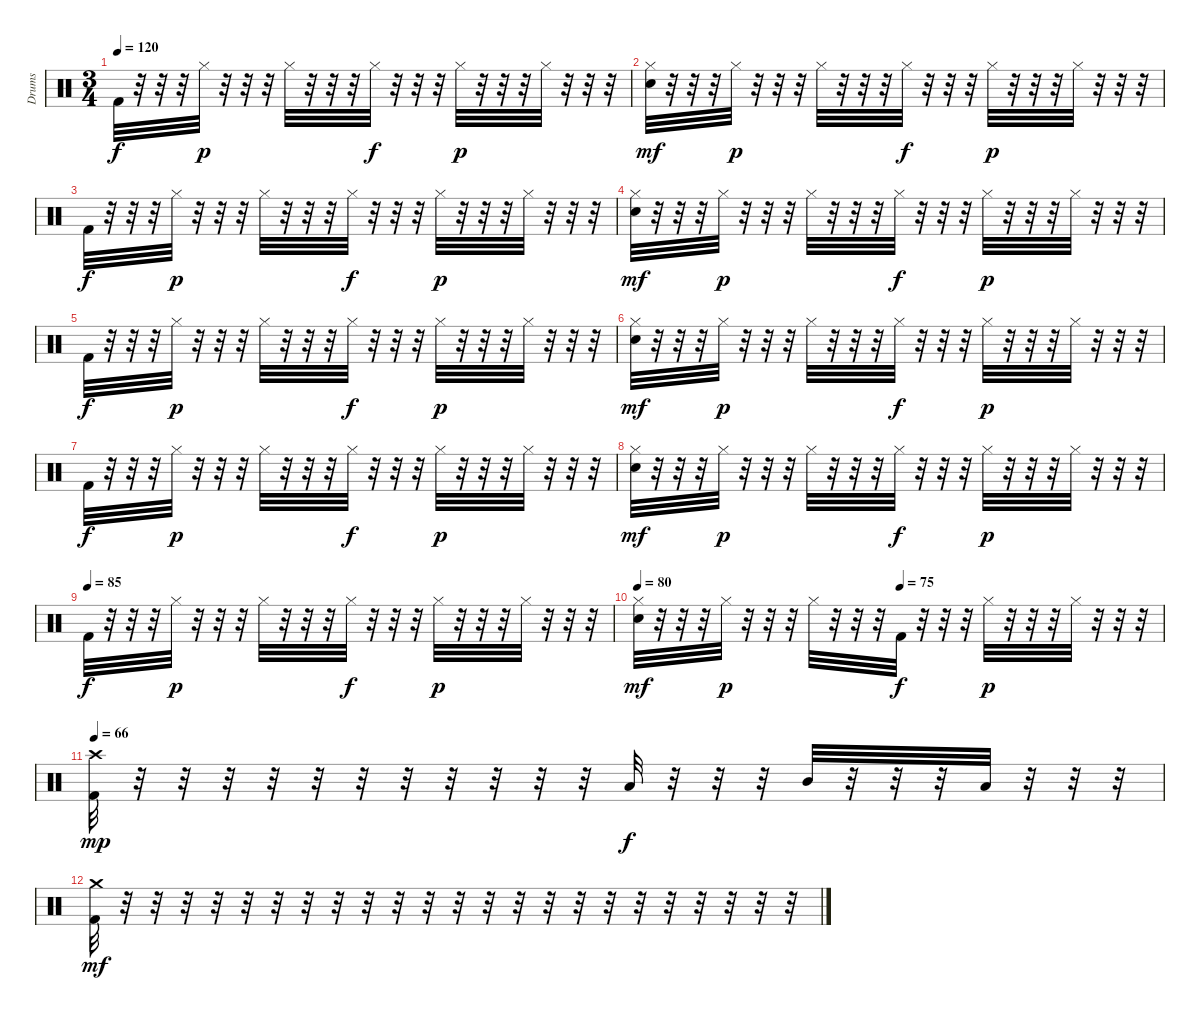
\track ("Drums" "Drums") {instrument percussion}
\staff {score}
\articulation defaults
\ts (3 4)
\tempo 120
\clef neutral
\ks c "Kick (hit) 2".32{dy f}
r.32 r.32 r.32 "Hi-Hat (closed)".32{dy p} r.32 r.32 r.32 "Hi-Hat (closed)".32 r.32 r.32 r.32 "Hi-Hat (closed)".32{dy f} r.32 r.32 r.32 "Hi-Hat (closed)".32{dy p} r.32 r.32 r.32 "Hi-Hat (closed)".32 r.32 r.32 r.32 |
("Hi-Hat (closed)" "Snare (hit) 2").32{dy mf} r.32 r.32 r.32 "Hi-Hat (closed)".32{dy p} r.32 r.32 r.32 "Hi-Hat (closed)".32 r.32 r.32 r.32 "Hi-Hat (closed)".32{dy f} r.32 r.32 r.32 "Hi-Hat (closed)".32{dy p} r.32 r.32 r.32 "Hi-Hat (closed)".32 r.32 r.32 r.32 |
"Kick (hit) 2".32{dy f} r.32 r.32 r.32 "Hi-Hat (closed)".32{dy p} r.32 r.32 r.32 "Hi-Hat (closed)".32 r.32 r.32 r.32 "Hi-Hat (closed)".32{dy f} r.32 r.32 r.32 "Hi-Hat (closed)".32{dy p} r.32 r.32 r.32 "Hi-Hat (closed)".32 r.32 r.32 r.32 |
("Hi-Hat (closed)" "Snare (hit) 2").32{dy mf} r.32 r.32 r.32 "Hi-Hat (closed)".32{dy p} r.32 r.32 r.32 "Hi-Hat (closed)".32 r.32 r.32 r.32 "Hi-Hat (closed)".32{dy f} r.32 r.32 r.32 "Hi-Hat (closed)".32{dy p} r.32 r.32 r.32 "Hi-Hat (closed)".32 r.32 r.32 r.32 |
"Kick (hit) 2".32{dy f} r.32 r.32 r.32 "Hi-Hat (closed)".32{dy p} r.32 r.32 r.32 "Hi-Hat (closed)".32 r.32 r.32 r.32 "Hi-Hat (closed)".32{dy f} r.32 r.32 r.32 "Hi-Hat (closed)".32{dy p} r.32 r.32 r.32 "Hi-Hat (closed)".32 r.32 r.32 r.32 |
("Hi-Hat (closed)" "Snare (hit) 2").32{dy mf} r.32 r.32 r.32 "Hi-Hat (closed)".32{dy p} r.32 r.32 r.32 "Hi-Hat (closed)".32 r.32 r.32 r.32 "Hi-Hat (closed)".32{dy f} r.32 r.32 r.32 "Hi-Hat (closed)".32{dy p} r.32 r.32 r.32 "Hi-Hat (closed)".32 r.32 r.32 r.32 |
"Kick (hit) 2".32{dy f} r.32 r.32 r.32 "Hi-Hat (closed)".32{dy p} r.32 r.32 r.32 "Hi-Hat (closed)".32 r.32 r.32 r.32 "Hi-Hat (closed)".32{dy f} r.32 r.32 r.32 "Hi-Hat (closed)".32{dy p} r.32 r.32 r.32 "Hi-Hat (closed)".32 r.32 r.32 r.32 |
("Hi-Hat (closed)" "Snare (hit) 2").32{dy mf} r.32 r.32 r.32 "Hi-Hat (closed)".32{dy p} r.32 r.32 r.32 "Hi-Hat (closed)".32 r.32 r.32 r.32 "Hi-Hat (closed)".32{dy f} r.32 r.32 r.32 "Hi-Hat (closed)".32{dy p} r.32 r.32 r.32 "Hi-Hat (closed)".32 r.32 r.32 r.32 |
\tempo (85)
"Kick (hit) 2".32{dy f} r.32 r.32 r.32 "Hi-Hat (closed)".32{dy p} r.32 r.32 r.32 "Hi-Hat (closed)".32 r.32 r.32 r.32 "Hi-Hat (closed)".32{dy f} r.32 r.32 r.32 "Hi-Hat (closed)".32{dy p} r.32 r.32 r.32 "Hi-Hat (closed)".32 r.32 r.32 r.32 |
\tempo 80
\tempo (75 0.5)
("Hi-Hat (closed)" "Snare (hit) 2").32{dy mf} r.32 r.32 r.32 "Hi-Hat (closed)".32{dy p} r.32 r.32 r.32 "Hi-Hat (closed)".32 r.32 r.32 r.32 "Kick (hit) 2".32{dy f} r.32 r.32 r.32 "Hi-Hat (closed)".32{dy p} r.32 r.32 r.32 "Hi-Hat (closed)".32 r.32 r.32 r.32 |
\tempo 66
("Kick (hit) 2" "Crash high (hit)").32{dy mp} r.32 r.32 r.32 r.32 r.32 r.32 r.32 r.32 r.32 r.32 r.32 "Low Tom (hit)".32{dy f} r.32 r.32 r.32 "Mid Tom (hit)".32 r.32 r.32 r.32 "Low Tom (hit)".32 r.32 r.32 r.32 |
("Kick (hit) 2" "Crash medium (hit)").32{dy mf} r.32 r.32 r.32 r.32 r.32 r.32 r.32 r.32 r.32 r.32 r.32 r.32 r.32 r.32 r.32 r.32 r.32 r.32 r.32 r.32 r.32 r.32 r.32
